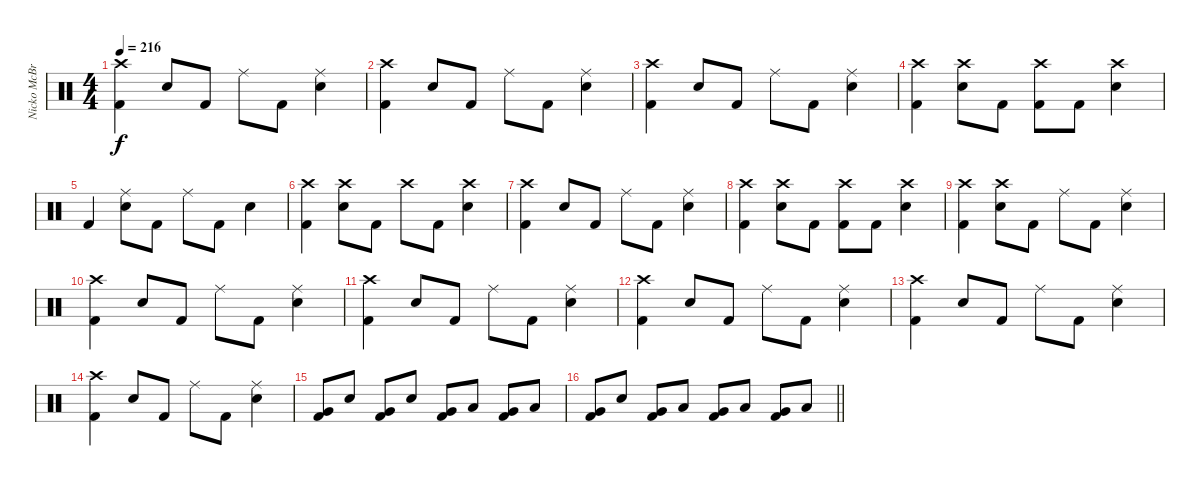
\track ("Nicko McBrain" "Nicko McBr") {instrument percussion}
\staff {score}
\articulation defaults
\ts (4 4)
\tempo 216
\clef neutral
\ks c
("Crash high (hit)" "Kick (hit) 2").4{dy f} "Snare (hit) 2".8 "Kick (hit) 2".8 "Ride (middle)".8 "Kick (hit) 2".8 ("Ride (middle)" "Snare (hit) 2").4 |
("Crash high (hit)" "Kick (hit) 2").4 "Snare (hit) 2".8 "Kick (hit) 2".8 "Ride (middle)".8 "Kick (hit) 2".8 ("Ride (middle)" "Snare (hit) 2").4 |
("Crash high (hit)" "Kick (hit) 2").4 "Snare (hit) 2".8 "Kick (hit) 2".8 "Ride (middle)".8 "Kick (hit) 2".8 ("Ride (middle)" "Snare (hit) 2").4 |
("Crash high (hit)" "Kick (hit) 2").4 ("Crash high (hit)" "Snare (hit) 2").8 "Kick (hit) 2".8 ("Crash high (hit)" "Kick (hit) 2").8 "Kick (hit) 2".8 ("Crash high (hit)" "Snare (hit) 2").4 |
"Kick (hit) 2".4 ("Ride (middle)" "Snare (hit) 2").8 "Kick (hit) 2".8 "Ride (middle)".8 "Kick (hit) 2".8 "Snare (hit) 2".4 |
("Crash high (hit)" "Kick (hit) 2").4 ("Crash high (hit)" "Snare (hit) 2").8 "Kick (hit) 2".8 "Crash high (hit)".8 "Kick (hit) 2".8 ("Crash high (hit)" "Snare (hit) 2").4 |
("Crash high (hit)" "Kick (hit) 2").4 "Snare (hit) 2".8 "Kick (hit) 2".8 "Ride (middle)".8 "Kick (hit) 2".8 ("Ride (middle)" "Snare (hit) 2").4 |
("Crash high (hit)" "Kick (hit) 2").4 ("Crash high (hit)" "Snare (hit) 2").8 "Kick (hit) 2".8 ("Crash high (hit)" "Kick (hit) 2").8 "Kick (hit) 2".8 ("Crash high (hit)" "Snare (hit) 2").4 |
("Crash high (hit)" "Kick (hit) 2").4 ("Crash high (hit)" "Snare (hit) 2").8 "Kick (hit) 2".8 "Ride (middle)".8 "Kick (hit) 2".8 ("Ride (middle)" "Snare (hit) 2").4 |
("Crash high (hit)" "Kick (hit) 2").4 "Snare (hit) 2".8 "Kick (hit) 2".8 "Ride (middle)".8 "Kick (hit) 2".8 ("Ride (middle)" "Snare (hit) 2").4 |
("Crash high (hit)" "Kick (hit) 2").4 "Snare (hit) 2".8 "Kick (hit) 2".8 "Ride (middle)".8 "Kick (hit) 2".8 ("Ride (middle)" "Snare (hit) 2").4 |
("Crash high (hit)" "Kick (hit) 2").4 "Snare (hit) 2".8 "Kick (hit) 2".8 "Ride (middle)".8 "Kick (hit) 2".8 ("Ride (middle)" "Snare (hit) 2").4 |
("Crash high (hit)" "Kick (hit) 2").4 "Snare (hit) 2".8 "Kick (hit) 2".8 "Ride (middle)".8 "Kick (hit) 2".8 ("Ride (middle)" "Snare (hit) 2").4 |
("Crash high (hit)" "Kick (hit) 2").4 "Snare (hit) 2".8 "Kick (hit) 2".8 "Ride (middle)".8 "Kick (hit) 2".8 ("Ride (middle)" "Snare (hit) 2").4 |
("Very Low Tom (hit)" "Kick (hit) 2").8 "Snare (hit) 2".8 ("Very Low Tom (hit)" "Kick (hit) 2").8 "Snare (hit) 2".8 ("Very Low Tom (hit)" "Kick (hit) 2").8 "Low Tom (hit)".8 ("Very Low Tom (hit)" "Kick (hit) 2").8 "Low Tom (hit)".8 |
\barLineRight lightlight
("Very Low Tom (hit)" "Kick (hit) 2").8 "Snare (hit) 2".8 ("Very Low Tom (hit)" "Kick (hit) 2").8 "Low Tom (hit)".8 ("Very Low Tom (hit)" "Kick (hit) 2").8 "Low Tom (hit)".8 ("Very Low Tom (hit)" "Kick (hit) 2").8 "Low Tom (hit)".8
